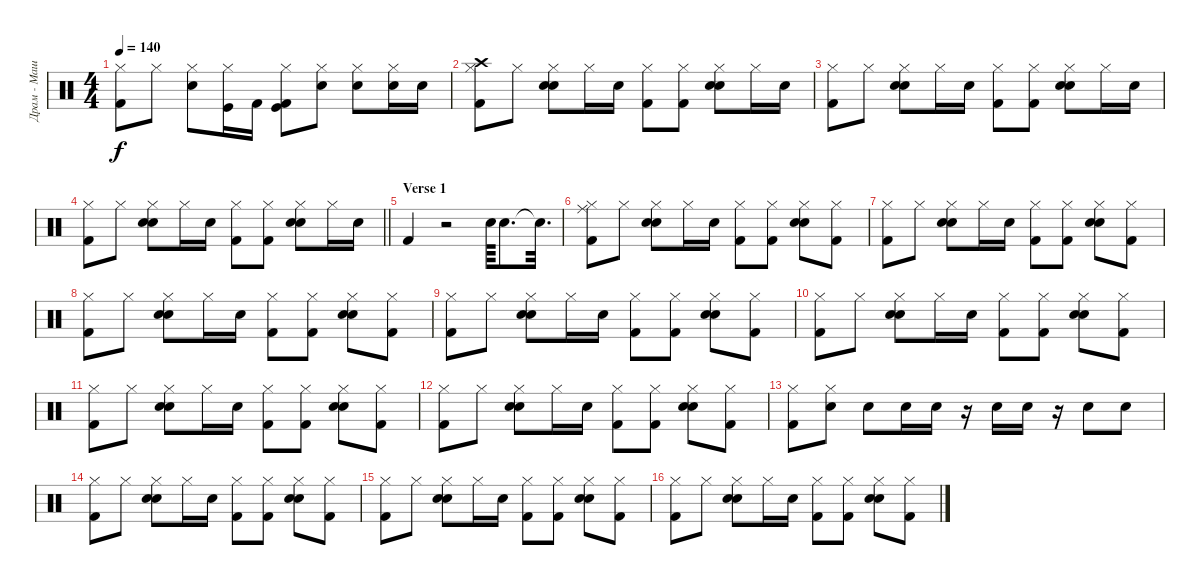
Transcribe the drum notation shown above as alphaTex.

\track ("Драм - Машина" "Драм - Маш") {instrument percussion}
\staff {score}
\articulation defaults
\ts (4 4)
\tempo 140
\clef neutral
\ks c
("Hi-Hat (closed)" "Kick (hit) 2").8{dy f} "Hi-Hat (closed)".8 ("Hi-Hat (closed)" "Electric Snare (hit)").8 ("Hi-Hat (closed)" "Kick (hit)").16 "Kick (hit) 2".16 ("Kick (hit) 2" "Hi-Hat (closed)" "Kick (hit)").8 ("Electric Snare (hit)" "Hi-Hat (closed)").8 ("Hi-Hat (closed)" "Electric Snare (hit)").8 ("Hi-Hat (closed)" "Electric Snare (hit)").16 "Electric Snare (hit)".16 |
("Kick (hit) 2" "Crash high (hit)" "Hi-Hat (closed)").8 "Hi-Hat (closed)".8 ("Hand Clap (hit)" "Snare (hit) 2" "Hi-Hat (closed)").8 "Hi-Hat (closed)".16 "Snare (hit) 2".16 ("Kick (hit) 2" "Hi-Hat (closed)").8 ("Hi-Hat (closed)" "Kick (hit) 2").8 ("Hand Clap (hit)" "Snare (hit) 2" "Hi-Hat (closed)").8 "Hi-Hat (closed)".16 "Snare (hit) 2".16 |
("Kick (hit) 2" "Hi-Hat (closed)").8 "Hi-Hat (closed)".8 ("Hand Clap (hit)" "Snare (hit) 2" "Hi-Hat (closed)").8 "Hi-Hat (closed)".16 "Snare (hit) 2".16 ("Kick (hit) 2" "Hi-Hat (closed)").8 ("Hi-Hat (closed)" "Kick (hit) 2").8 ("Hand Clap (hit)" "Snare (hit) 2" "Hi-Hat (closed)").8 "Hi-Hat (closed)".16 "Snare (hit) 2".16 |
\barLineRight lightlight
("Kick (hit) 2" "Hi-Hat (closed)").8 "Hi-Hat (closed)".8 ("Hand Clap (hit)" "Snare (hit) 2" "Hi-Hat (closed)").8 "Hi-Hat (closed)".16 "Snare (hit) 2".16 ("Kick (hit) 2" "Hi-Hat (closed)").8 ("Hi-Hat (closed)" "Kick (hit) 2").8 ("Hand Clap (hit)" "Snare (hit) 2" "Hi-Hat (closed)").8 "Hi-Hat (closed)".16 "Snare (hit) 2".16 |
\section ("" "Verse 1")
"Kick (hit) 2".4 r.2 "Snare (hit) 2".64 "Electric Snare (hit)".8{d} "Snare (hit)"{t}.32{d} |
("Kick (hit) 2" "Ride (middle)" "Hi-Hat (closed)").8 "Hi-Hat (closed)".8 ("Hand Clap (hit)" "Snare (hit) 2" "Hi-Hat (closed)").8 "Hi-Hat (closed)".16 "Snare (hit) 2".16 ("Kick (hit) 2" "Hi-Hat (closed)").8 ("Hi-Hat (closed)" "Kick (hit) 2").8 ("Hand Clap (hit)" "Snare (hit) 2" "Hi-Hat (closed)").8 ("Hi-Hat (closed)" "Kick (hit) 2").8 |
("Kick (hit) 2" "Hi-Hat (closed)").8 "Hi-Hat (closed)".8 ("Hand Clap (hit)" "Snare (hit) 2" "Hi-Hat (closed)").8 "Hi-Hat (closed)".16 "Snare (hit) 2".16 ("Kick (hit) 2" "Hi-Hat (closed)").8 ("Hi-Hat (closed)" "Kick (hit) 2").8 ("Hand Clap (hit)" "Snare (hit) 2" "Hi-Hat (closed)").8 ("Hi-Hat (closed)" "Kick (hit) 2").8 |
("Kick (hit) 2" "Hi-Hat (closed)").8 "Hi-Hat (closed)".8 ("Hand Clap (hit)" "Snare (hit) 2" "Hi-Hat (closed)").8 "Hi-Hat (closed)".16 "Snare (hit) 2".16 ("Kick (hit) 2" "Hi-Hat (closed)").8 ("Hi-Hat (closed)" "Kick (hit) 2").8 ("Hand Clap (hit)" "Snare (hit) 2" "Hi-Hat (closed)").8 ("Hi-Hat (closed)" "Kick (hit) 2").8 |
("Kick (hit) 2" "Hi-Hat (closed)").8 "Hi-Hat (closed)".8 ("Hand Clap (hit)" "Snare (hit) 2" "Hi-Hat (closed)").8 "Hi-Hat (closed)".16 "Snare (hit) 2".16 ("Kick (hit) 2" "Hi-Hat (closed)").8 ("Hi-Hat (closed)" "Kick (hit) 2").8 ("Hand Clap (hit)" "Snare (hit) 2" "Hi-Hat (closed)").8 ("Hi-Hat (closed)" "Kick (hit) 2").8 |
("Kick (hit) 2" "Hi-Hat (closed)").8 "Hi-Hat (closed)".8 ("Hand Clap (hit)" "Snare (hit) 2" "Hi-Hat (closed)").8 "Hi-Hat (closed)".16 "Snare (hit) 2".16 ("Kick (hit) 2" "Hi-Hat (closed)").8 ("Hi-Hat (closed)" "Kick (hit) 2").8 ("Hand Clap (hit)" "Snare (hit) 2" "Hi-Hat (closed)").8 ("Hi-Hat (closed)" "Kick (hit) 2").8 |
("Kick (hit) 2" "Hi-Hat (closed)").8 "Hi-Hat (closed)".8 ("Hand Clap (hit)" "Snare (hit) 2" "Hi-Hat (closed)").8 "Hi-Hat (closed)".16 "Snare (hit) 2".16 ("Kick (hit) 2" "Hi-Hat (closed)").8 ("Hi-Hat (closed)" "Kick (hit) 2").8 ("Hand Clap (hit)" "Snare (hit) 2" "Hi-Hat (closed)").8 ("Hi-Hat (closed)" "Kick (hit) 2").8 |
("Kick (hit) 2" "Hi-Hat (closed)").8 "Hi-Hat (closed)".8 ("Hand Clap (hit)" "Snare (hit) 2" "Hi-Hat (closed)").8 "Hi-Hat (closed)".16 "Snare (hit) 2".16 ("Kick (hit) 2" "Hi-Hat (closed)").8 ("Hi-Hat (closed)" "Kick (hit) 2").8 ("Hand Clap (hit)" "Snare (hit) 2" "Hi-Hat (closed)").8 ("Hi-Hat (closed)" "Kick (hit) 2").8 |
("Kick (hit) 2" "Hi-Hat (closed)").8 ("Hi-Hat (closed)" "Electric Snare (hit)").8 "Electric Snare (hit)".8 "Snare (hit) 2".16 "Electric Snare (hit)".16 r.16 "Electric Snare (hit)".16 "Snare (hit) 2".16 r.16 "Electric Snare (hit)".8 "Electric Snare (hit)".8 |
("Kick (hit) 2" "Hi-Hat (closed)").8 "Hi-Hat (closed)".8 ("Hand Clap (hit)" "Snare (hit) 2" "Hi-Hat (closed)").8 "Hi-Hat (closed)".16 "Snare (hit) 2".16 ("Kick (hit) 2" "Hi-Hat (closed)").8 ("Hi-Hat (closed)" "Kick (hit) 2").8 ("Hand Clap (hit)" "Snare (hit) 2" "Hi-Hat (closed)").8 ("Hi-Hat (closed)" "Kick (hit) 2").8 |
("Kick (hit) 2" "Hi-Hat (closed)").8 "Hi-Hat (closed)".8 ("Hand Clap (hit)" "Snare (hit) 2" "Hi-Hat (closed)").8 "Hi-Hat (closed)".16 "Snare (hit) 2".16 ("Kick (hit) 2" "Hi-Hat (closed)").8 ("Hi-Hat (closed)" "Kick (hit) 2").8 ("Hand Clap (hit)" "Snare (hit) 2" "Hi-Hat (closed)").8 ("Hi-Hat (closed)" "Kick (hit) 2").8 |
("Kick (hit) 2" "Hi-Hat (closed)").8 "Hi-Hat (closed)".8 ("Hand Clap (hit)" "Snare (hit) 2" "Hi-Hat (closed)").8 "Hi-Hat (closed)".16 "Snare (hit) 2".16 ("Kick (hit) 2" "Hi-Hat (closed)").8 ("Hi-Hat (closed)" "Kick (hit) 2").8 ("Hand Clap (hit)" "Snare (hit) 2" "Hi-Hat (closed)").8 ("Hi-Hat (closed)" "Kick (hit) 2").8
